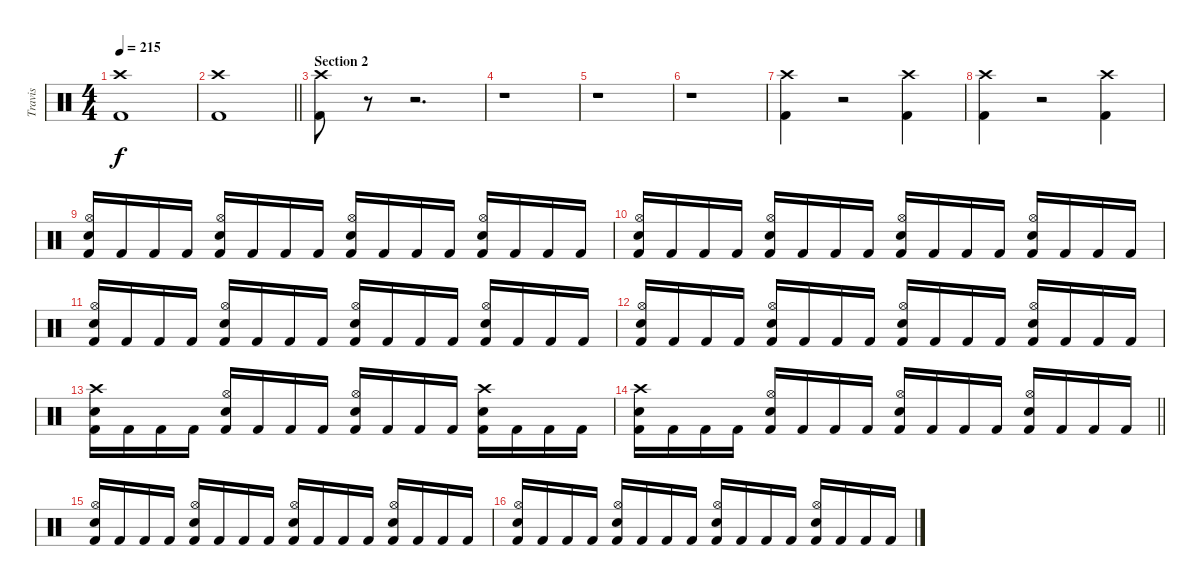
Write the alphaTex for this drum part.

\track ("Travis" "Travis") {instrument percussion}
\staff {score}
\articulation defaults
\ts (4 4)
\tempo 215
\clef neutral
\ks c
("Crash high (hit)" "Kick (hit) 2").1{dy f} |
\barLineRight lightlight
("Crash high (hit)" "Kick (hit) 2").1 |
\section ("" "Section 2")
("Crash high (hit)" "Kick (hit) 2").8 r.8 r.2{d} |
r.1 |
r.1 |
r.1 |
("Crash high (hit)" "Kick (hit) 2").4 r.2 ("Crash high (hit)" "Kick (hit) 2").4 |
("Crash high (hit)" "Kick (hit) 2").4 r.2 ("Crash high (hit)" "Kick (hit) 2").4 |
("Hi-Hat (open)" "Snare (hit) 2" "Kick (hit) 2").16 "Kick (hit) 2".16 "Kick (hit) 2".16 "Kick (hit) 2".16 ("Hi-Hat (open)" "Snare (hit) 2" "Kick (hit) 2").16 "Kick (hit) 2".16 "Kick (hit) 2".16 "Kick (hit) 2".16 ("Hi-Hat (open)" "Snare (hit) 2" "Kick (hit) 2").16 "Kick (hit) 2".16 "Kick (hit) 2".16 "Kick (hit) 2".16 ("Hi-Hat (open)" "Snare (hit) 2" "Kick (hit) 2").16 "Kick (hit) 2".16 "Kick (hit) 2".16 "Kick (hit) 2".16 |
("Hi-Hat (open)" "Snare (hit) 2" "Kick (hit) 2").16 "Kick (hit) 2".16 "Kick (hit) 2".16 "Kick (hit) 2".16 ("Hi-Hat (open)" "Snare (hit) 2" "Kick (hit) 2").16 "Kick (hit) 2".16 "Kick (hit) 2".16 "Kick (hit) 2".16 ("Hi-Hat (open)" "Snare (hit) 2" "Kick (hit) 2").16 "Kick (hit) 2".16 "Kick (hit) 2".16 "Kick (hit) 2".16 ("Hi-Hat (open)" "Snare (hit) 2" "Kick (hit) 2").16 "Kick (hit) 2".16 "Kick (hit) 2".16 "Kick (hit) 2".16 |
("Hi-Hat (open)" "Snare (hit) 2" "Kick (hit) 2").16 "Kick (hit) 2".16 "Kick (hit) 2".16 "Kick (hit) 2".16 ("Hi-Hat (open)" "Snare (hit) 2" "Kick (hit) 2").16 "Kick (hit) 2".16 "Kick (hit) 2".16 "Kick (hit) 2".16 ("Hi-Hat (open)" "Snare (hit) 2" "Kick (hit) 2").16 "Kick (hit) 2".16 "Kick (hit) 2".16 "Kick (hit) 2".16 ("Hi-Hat (open)" "Snare (hit) 2" "Kick (hit) 2").16 "Kick (hit) 2".16 "Kick (hit) 2".16 "Kick (hit) 2".16 |
("Hi-Hat (open)" "Snare (hit) 2" "Kick (hit) 2").16 "Kick (hit) 2".16 "Kick (hit) 2".16 "Kick (hit) 2".16 ("Hi-Hat (open)" "Snare (hit) 2" "Kick (hit) 2").16 "Kick (hit) 2".16 "Kick (hit) 2".16 "Kick (hit) 2".16 ("Hi-Hat (open)" "Snare (hit) 2" "Kick (hit) 2").16 "Kick (hit) 2".16 "Kick (hit) 2".16 "Kick (hit) 2".16 ("Hi-Hat (open)" "Snare (hit) 2" "Kick (hit) 2").16 "Kick (hit) 2".16 "Kick (hit) 2".16 "Kick (hit) 2".16 |
("Crash high (hit)" "Snare (hit) 2" "Kick (hit) 2").16 "Kick (hit) 2".16 "Kick (hit) 2".16 "Kick (hit) 2".16 ("Hi-Hat (open)" "Snare (hit) 2" "Kick (hit) 2").16 "Kick (hit) 2".16 "Kick (hit) 2".16 "Kick (hit) 2".16 ("Hi-Hat (open)" "Snare (hit) 2" "Kick (hit) 2").16 "Kick (hit) 2".16 "Kick (hit) 2".16 "Kick (hit) 2".16 ("Crash high (hit)" "Snare (hit) 2" "Kick (hit) 2").16 "Kick (hit) 2".16 "Kick (hit) 2".16 "Kick (hit) 2".16 |
\barLineRight lightlight
("Crash high (hit)" "Snare (hit) 2" "Kick (hit) 2").16 "Kick (hit) 2".16 "Kick (hit) 2".16 "Kick (hit) 2".16 ("Hi-Hat (open)" "Snare (hit) 2" "Kick (hit) 2").16 "Kick (hit) 2".16 "Kick (hit) 2".16 "Kick (hit) 2".16 ("Hi-Hat (open)" "Snare (hit) 2" "Kick (hit) 2").16 "Kick (hit) 2".16 "Kick (hit) 2".16 "Kick (hit) 2".16 ("Hi-Hat (open)" "Snare (hit) 2" "Kick (hit) 2").16 "Kick (hit) 2".16 "Kick (hit) 2".16 "Kick (hit) 2".16 |
("Hi-Hat (open)" "Snare (hit) 2" "Kick (hit) 2").16 "Kick (hit) 2".16 "Kick (hit) 2".16 "Kick (hit) 2".16 ("Hi-Hat (open)" "Snare (hit) 2" "Kick (hit) 2").16 "Kick (hit) 2".16 "Kick (hit) 2".16 "Kick (hit) 2".16 ("Hi-Hat (open)" "Snare (hit) 2" "Kick (hit) 2").16 "Kick (hit) 2".16 "Kick (hit) 2".16 "Kick (hit) 2".16 ("Hi-Hat (open)" "Snare (hit) 2" "Kick (hit) 2").16 "Kick (hit) 2".16 "Kick (hit) 2".16 "Kick (hit) 2".16 |
("Hi-Hat (open)" "Snare (hit) 2" "Kick (hit) 2").16 "Kick (hit) 2".16 "Kick (hit) 2".16 "Kick (hit) 2".16 ("Hi-Hat (open)" "Snare (hit) 2" "Kick (hit) 2").16 "Kick (hit) 2".16 "Kick (hit) 2".16 "Kick (hit) 2".16 ("Hi-Hat (open)" "Snare (hit) 2" "Kick (hit) 2").16 "Kick (hit) 2".16 "Kick (hit) 2".16 "Kick (hit) 2".16 ("Hi-Hat (open)" "Snare (hit) 2" "Kick (hit) 2").16 "Kick (hit) 2".16 "Kick (hit) 2".16 "Kick (hit) 2".16
